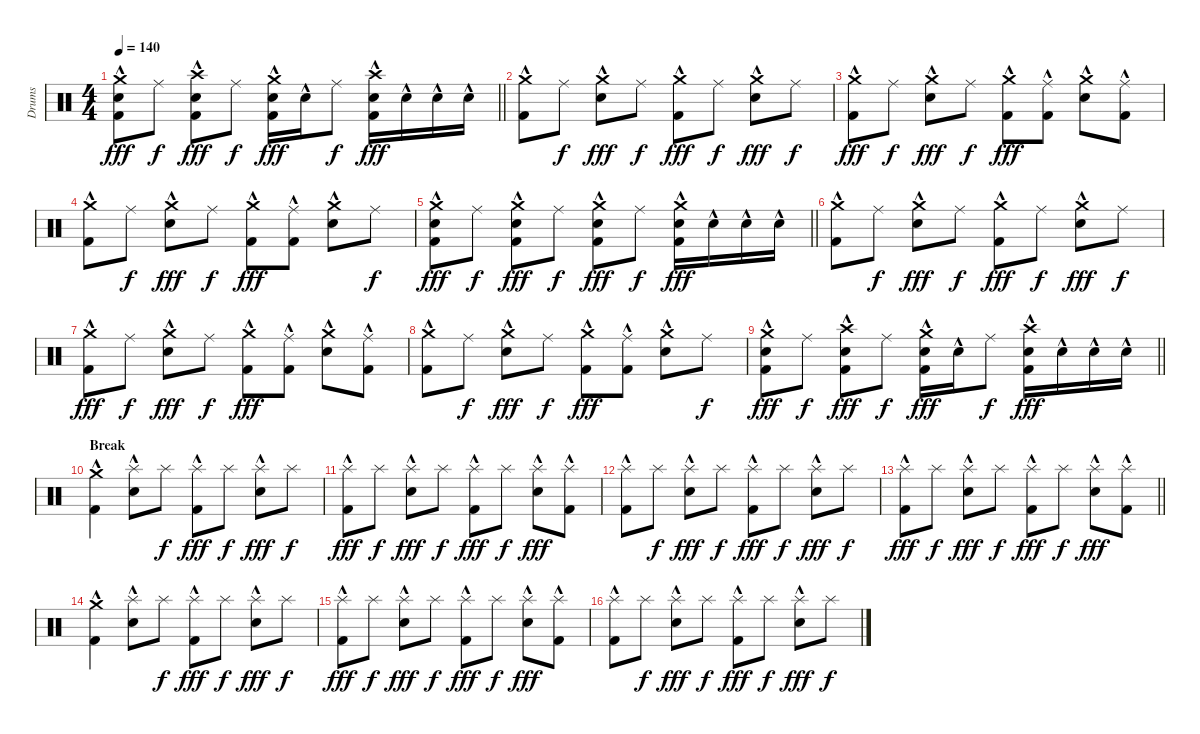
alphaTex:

\track ("Drums" "Drums") {instrument percussion}
\staff {score}
\articulation defaults
\ts (4 4)
\tempo 140
\clef neutral
\barLineRight lightlight
\ks c
("Kick (hit) 2"{hac} "Snare (hit) 2"{hac} "Crash medium (hit)").8{dy fff} "Ride (middle)".8{dy f} ("Kick (hit) 2"{hac} "Snare (hit) 2"{hac} "Crash high (hit)").8{dy fff} "Ride (middle)".8{dy f} ("Kick (hit) 2"{hac} "Snare (hit) 2"{hac} "Crash medium (hit)").16{dy fff} "Snare (hit) 2"{hac}.16 "Ride (middle)".8{dy f} ("Kick (hit) 2"{hac} "Snare (hit) 2"{hac} "Crash high (hit)").16{dy fff} "Snare (hit) 2"{hac}.16 "Snare (hit) 2"{hac}.16 "Snare (hit) 2"{hac}.16 |
\section ("" "")
("Kick (hit) 2"{hac} "Crash medium (hit)").8 "Ride (middle)".8{dy f} ("Snare (hit) 2"{hac} "Crash medium (hit)").8{dy fff} "Ride (middle)".8{dy f} ("Kick (hit) 2"{hac} "Crash medium (hit)").8{dy fff} "Ride (middle)".8{dy f} ("Snare (hit) 2"{hac} "Crash medium (hit)").8{dy fff} "Ride (middle)".8{dy f} |
("Kick (hit) 2"{hac} "Crash medium (hit)").8{dy fff} "Ride (middle)".8{dy f} ("Snare (hit) 2"{hac} "Crash medium (hit)").8{dy fff} "Ride (middle)".8{dy f} ("Kick (hit) 2"{hac} "Crash medium (hit)").8{dy fff} ("Kick (hit) 2"{hac} "Ride (middle)").8 ("Snare (hit) 2"{hac} "Crash medium (hit)").8 ("Kick (hit) 2"{hac} "Ride (middle)").8 |
("Kick (hit) 2"{hac} "Crash medium (hit)").8 "Ride (middle)".8{dy f} ("Snare (hit) 2"{hac} "Crash medium (hit)").8{dy fff} "Ride (middle)".8{dy f} ("Kick (hit) 2"{hac} "Crash medium (hit)").8{dy fff} ("Kick (hit) 2"{hac} "Ride (middle)").8 ("Snare (hit) 2"{hac} "Crash medium (hit)").8 "Ride (middle)".8{dy f} |
\barLineRight lightlight
("Kick (hit) 2"{hac} "Snare (hit) 2"{hac} "Crash medium (hit)").8{dy fff} "Ride (middle)".8{dy f} ("Kick (hit) 2"{hac} "Snare (hit) 2"{hac} "Crash medium (hit)").8{dy fff} "Ride (middle)".8{dy f} ("Kick (hit) 2"{hac} "Snare (hit) 2"{hac} "Crash medium (hit)").8{dy fff} "Ride (middle)".8{dy f} ("Kick (hit) 2"{hac} "Snare (hit) 2"{hac} "Crash medium (hit)").16{dy fff} "Snare (hit) 2"{hac}.16 "Snare (hit) 2"{hac}.16 "Snare (hit) 2"{hac}.16 |
\section ("" "")
("Kick (hit) 2"{hac} "Crash medium (hit)").8 "Ride (middle)".8{dy f} ("Snare (hit) 2"{hac} "Crash medium (hit)").8{dy fff} "Ride (middle)".8{dy f} ("Kick (hit) 2"{hac} "Crash medium (hit)").8{dy fff} "Ride (middle)".8{dy f} ("Snare (hit) 2"{hac} "Crash medium (hit)").8{dy fff} "Ride (middle)".8{dy f} |
("Kick (hit) 2"{hac} "Crash medium (hit)").8{dy fff} "Ride (middle)".8{dy f} ("Snare (hit) 2"{hac} "Crash medium (hit)").8{dy fff} "Ride (middle)".8{dy f} ("Kick (hit) 2"{hac} "Crash medium (hit)").8{dy fff} ("Kick (hit) 2"{hac} "Ride (middle)").8 ("Snare (hit) 2"{hac} "Crash medium (hit)").8 ("Kick (hit) 2"{hac} "Ride (middle)").8 |
("Kick (hit) 2"{hac} "Crash medium (hit)").8 "Ride (middle)".8{dy f} ("Snare (hit) 2"{hac} "Crash medium (hit)").8{dy fff} "Ride (middle)".8{dy f} ("Kick (hit) 2"{hac} "Crash medium (hit)").8{dy fff} ("Kick (hit) 2"{hac} "Ride (middle)").8 ("Snare (hit) 2"{hac} "Crash medium (hit)").8 "Ride (middle)".8{dy f} |
\barLineRight lightlight
("Kick (hit) 2"{hac} "Snare (hit) 2"{hac} "Crash medium (hit)").8{dy fff} "Ride (middle)".8{dy f} ("Kick (hit) 2"{hac} "Snare (hit) 2"{hac} "Crash high (hit)").8{dy fff} "Ride (middle)".8{dy f} ("Kick (hit) 2"{hac} "Snare (hit) 2"{hac} "Crash medium (hit)").16{dy fff} "Snare (hit) 2"{hac}.16 "Ride (middle)".8{dy f} ("Kick (hit) 2"{hac} "Snare (hit) 2"{hac} "Crash high (hit)").16{dy fff} "Snare (hit) 2"{hac}.16 "Snare (hit) 2"{hac}.16 "Snare (hit) 2"{hac}.16 |
\section ("" "Break")
("Kick (hit) 2"{hac} "Crash medium (hit)").4 ("Snare (hit) 2"{hac} "Splash (hit)").8 "Splash (hit)".8{dy f} ("Kick (hit) 2"{hac} "Splash (hit)").8{dy fff} "Splash (hit)".8{dy f} ("Snare (hit) 2"{hac} "Splash (hit)").8{dy fff} "Splash (hit)".8{dy f} |
("Kick (hit) 2"{hac} "Splash (hit)").8{dy fff} "Splash (hit)".8{dy f} ("Snare (hit) 2"{hac} "Splash (hit)").8{dy fff} "Splash (hit)".8{dy f} ("Kick (hit) 2"{hac} "Splash (hit)").8{dy fff} "Splash (hit)".8{dy f} ("Snare (hit) 2"{hac} "Splash (hit)").8{dy fff} ("Kick (hit) 2"{hac} "Splash (hit)").8 |
("Kick (hit) 2"{hac} "Splash (hit)").8 "Splash (hit)".8{dy f} ("Snare (hit) 2"{hac} "Splash (hit)").8{dy fff} "Splash (hit)".8{dy f} ("Kick (hit) 2"{hac} "Splash (hit)").8{dy fff} "Splash (hit)".8{dy f} ("Snare (hit) 2"{hac} "Splash (hit)").8{dy fff} "Splash (hit)".8{dy f} |
\barLineRight lightlight
("Kick (hit) 2"{hac} "Splash (hit)").8{dy fff} "Splash (hit)".8{dy f} ("Snare (hit) 2"{hac} "Splash (hit)").8{dy fff} "Splash (hit)".8{dy f} ("Kick (hit) 2"{hac} "Splash (hit)").8{dy fff} "Splash (hit)".8{dy f} ("Snare (hit) 2"{hac} "Splash (hit)").8{dy fff} ("Kick (hit) 2"{hac} "Splash (hit)").8 |
\section ("" "")
("Kick (hit) 2"{hac} "Crash medium (hit)").4 ("Snare (hit) 2"{hac} "Splash (hit)").8 "Splash (hit)".8{dy f} ("Kick (hit) 2"{hac} "Splash (hit)").8{dy fff} "Splash (hit)".8{dy f} ("Snare (hit) 2"{hac} "Splash (hit)").8{dy fff} "Splash (hit)".8{dy f} |
("Kick (hit) 2"{hac} "Splash (hit)").8{dy fff} "Splash (hit)".8{dy f} ("Snare (hit) 2"{hac} "Splash (hit)").8{dy fff} "Splash (hit)".8{dy f} ("Kick (hit) 2"{hac} "Splash (hit)").8{dy fff} "Splash (hit)".8{dy f} ("Snare (hit) 2"{hac} "Splash (hit)").8{dy fff} ("Kick (hit) 2"{hac} "Splash (hit)").8 |
("Kick (hit) 2"{hac} "Splash (hit)").8 "Splash (hit)".8{dy f} ("Snare (hit) 2"{hac} "Splash (hit)").8{dy fff} "Splash (hit)".8{dy f} ("Kick (hit) 2"{hac} "Splash (hit)").8{dy fff} "Splash (hit)".8{dy f} ("Snare (hit) 2"{hac} "Splash (hit)").8{dy fff} "Splash (hit)".8{dy f}
